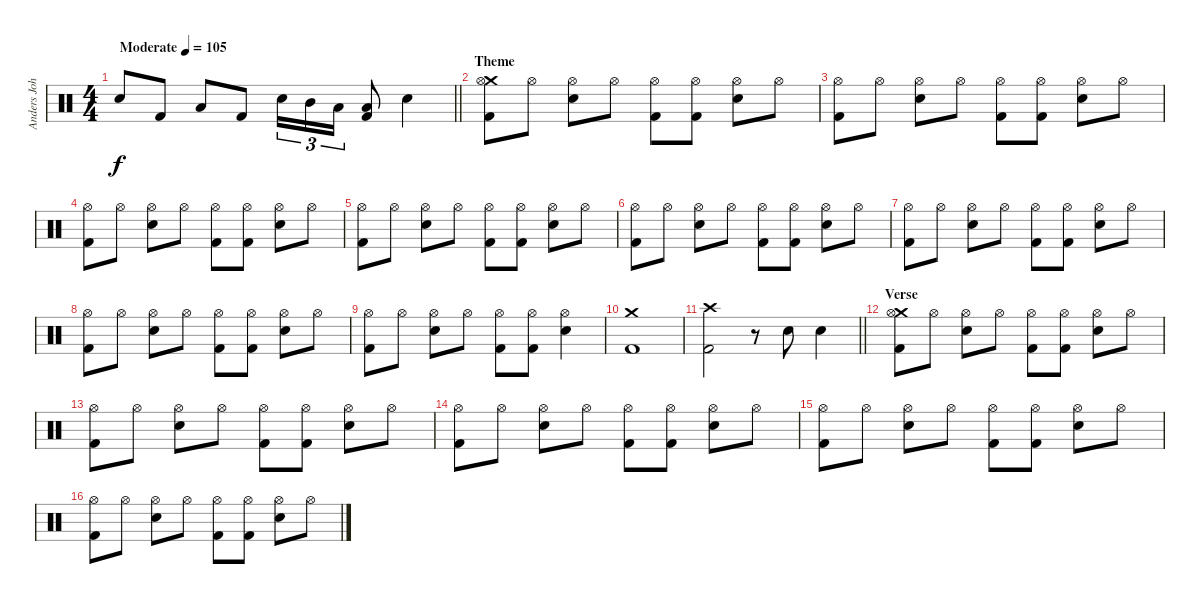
\track ("Anders Johansson" "Anders Joh") {instrument percussion}
\staff {score}
\articulation defaults
\ts (4 4)
\tempo (105 "Moderate")
\clef neutral
\barLineRight lightlight
\ks c "Snare (hit) 2".8{dy f} "Kick (hit) 2".8 "Low Tom (hit)".8 "Kick (hit) 2".8 "Snare (hit) 2".16{tu (3 2)} "Mid Tom (hit)".16{tu (3 2)} "Low Tom (hit)".16{tu (3 2)}
("Low Floor Tom (hit)" "Kick (hit) 2").8 "Snare (hit) 2".4 |
\section ("" "Theme")
("Crash medium (hit)" "Hi-Hat (open)" "Kick (hit) 2").8 "Hi-Hat (open)".8 ("Hi-Hat (open)" "Snare (hit) 2").8 "Hi-Hat (open)".8 ("Hi-Hat (open)" "Kick (hit) 2").8 ("Hi-Hat (open)" "Kick (hit) 2").8 ("Hi-Hat (open)" "Snare (hit) 2").8 "Hi-Hat (open)".8 |
("Hi-Hat (open)" "Kick (hit) 2").8 "Hi-Hat (open)".8 ("Hi-Hat (open)" "Snare (hit) 2").8 "Hi-Hat (open)".8 ("Hi-Hat (open)" "Kick (hit) 2").8 ("Hi-Hat (open)" "Kick (hit) 2").8 ("Hi-Hat (open)" "Snare (hit) 2").8 "Hi-Hat (open)".8 |
("Hi-Hat (open)" "Kick (hit) 2").8 "Hi-Hat (open)".8 ("Hi-Hat (open)" "Snare (hit) 2").8 "Hi-Hat (open)".8 ("Hi-Hat (open)" "Kick (hit) 2").8 ("Hi-Hat (open)" "Kick (hit) 2").8 ("Hi-Hat (open)" "Snare (hit) 2").8 "Hi-Hat (open)".8 |
("Hi-Hat (open)" "Kick (hit) 2").8 "Hi-Hat (open)".8 ("Hi-Hat (open)" "Snare (hit) 2").8 "Hi-Hat (open)".8 ("Hi-Hat (open)" "Kick (hit) 2").8 ("Hi-Hat (open)" "Kick (hit) 2").8 ("Hi-Hat (open)" "Snare (hit) 2").8 "Hi-Hat (open)".8 |
("Hi-Hat (open)" "Kick (hit) 2").8 "Hi-Hat (open)".8 ("Hi-Hat (open)" "Snare (hit) 2").8 "Hi-Hat (open)".8 ("Hi-Hat (open)" "Kick (hit) 2").8 ("Hi-Hat (open)" "Kick (hit) 2").8 ("Hi-Hat (open)" "Snare (hit) 2").8 "Hi-Hat (open)".8 |
("Hi-Hat (open)" "Kick (hit) 2").8 "Hi-Hat (open)".8 ("Hi-Hat (open)" "Snare (hit) 2").8 "Hi-Hat (open)".8 ("Hi-Hat (open)" "Kick (hit) 2").8 ("Hi-Hat (open)" "Kick (hit) 2").8 ("Hi-Hat (open)" "Snare (hit) 2").8 "Hi-Hat (open)".8 |
("Hi-Hat (open)" "Kick (hit) 2").8 "Hi-Hat (open)".8 ("Hi-Hat (open)" "Snare (hit) 2").8 "Hi-Hat (open)".8 ("Hi-Hat (open)" "Kick (hit) 2").8 ("Hi-Hat (open)" "Kick (hit) 2").8 ("Hi-Hat (open)" "Snare (hit) 2").8 "Hi-Hat (open)".8 |
("Hi-Hat (open)" "Kick (hit) 2").8 "Hi-Hat (open)".8 ("Hi-Hat (open)" "Snare (hit) 2").8 "Hi-Hat (open)".8 ("Hi-Hat (open)" "Kick (hit) 2").8 ("Hi-Hat (open)" "Kick (hit) 2").8 ("Hi-Hat (open)" "Snare (hit) 2").4 |
("Crash medium (hit)" "Kick (hit) 2").1 |
\barLineRight lightlight
("Crash high (hit)" "Kick (hit) 2").2 r.8 "Snare (hit) 2".8 "Snare (hit) 2".4 |
\section ("" "Verse")
("Crash medium (hit)" "Hi-Hat (open)" "Kick (hit) 2").8 "Hi-Hat (open)".8 ("Hi-Hat (open)" "Snare (hit) 2").8 "Hi-Hat (open)".8 ("Hi-Hat (open)" "Kick (hit) 2").8 ("Hi-Hat (open)" "Kick (hit) 2").8 ("Hi-Hat (open)" "Snare (hit) 2").8 "Hi-Hat (open)".8 |
("Hi-Hat (open)" "Kick (hit) 2").8 "Hi-Hat (open)".8 ("Hi-Hat (open)" "Snare (hit) 2").8 "Hi-Hat (open)".8 ("Hi-Hat (open)" "Kick (hit) 2").8 ("Hi-Hat (open)" "Kick (hit) 2").8 ("Hi-Hat (open)" "Snare (hit) 2").8 "Hi-Hat (open)".8 |
("Hi-Hat (open)" "Kick (hit) 2").8 "Hi-Hat (open)".8 ("Hi-Hat (open)" "Snare (hit) 2").8 "Hi-Hat (open)".8 ("Hi-Hat (open)" "Kick (hit) 2").8 ("Hi-Hat (open)" "Kick (hit) 2").8 ("Hi-Hat (open)" "Snare (hit) 2").8 "Hi-Hat (open)".8 |
("Hi-Hat (open)" "Kick (hit) 2").8 "Hi-Hat (open)".8 ("Hi-Hat (open)" "Snare (hit) 2").8 "Hi-Hat (open)".8 ("Hi-Hat (open)" "Kick (hit) 2").8 ("Hi-Hat (open)" "Kick (hit) 2").8 ("Hi-Hat (open)" "Snare (hit) 2").8 "Hi-Hat (open)".8 |
("Hi-Hat (open)" "Kick (hit) 2").8 "Hi-Hat (open)".8 ("Hi-Hat (open)" "Snare (hit) 2").8 "Hi-Hat (open)".8 ("Hi-Hat (open)" "Kick (hit) 2").8 ("Hi-Hat (open)" "Kick (hit) 2").8 ("Hi-Hat (open)" "Snare (hit) 2").8 "Hi-Hat (open)".8
